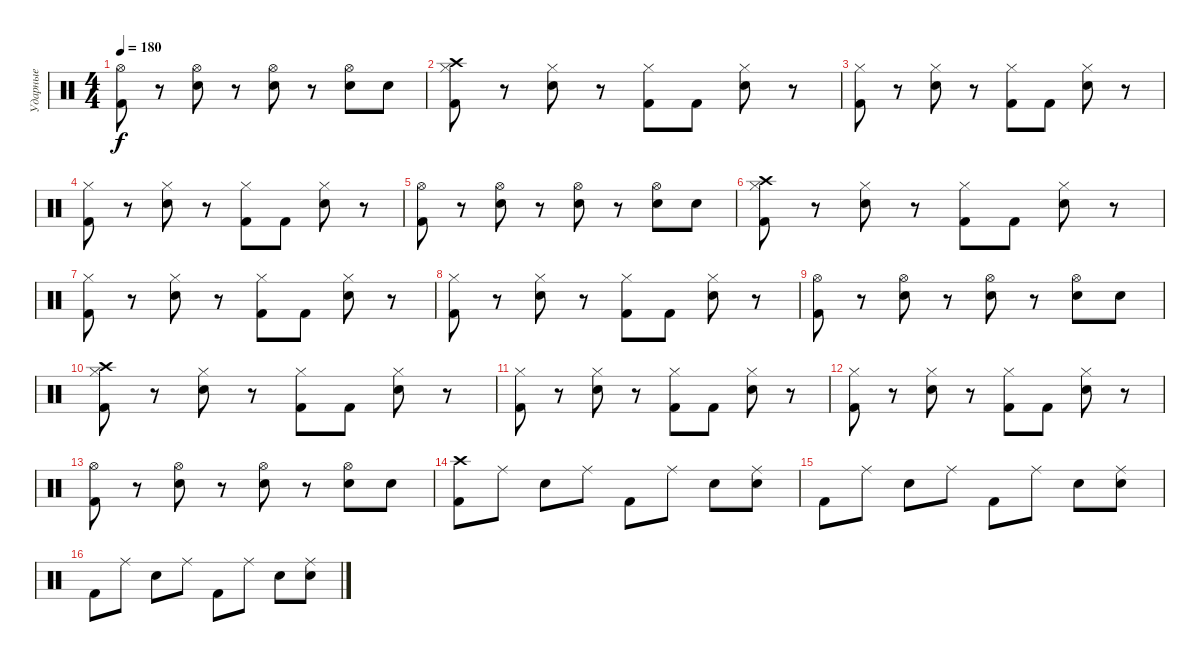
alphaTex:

\track ("Ударные" "Ударные") {instrument percussion}
\staff {score}
\articulation defaults
\ts (4 4)
\tempo 180
\clef neutral
\ks c
("Hi-Hat (open)" "Kick (hit) 2").8{dy f} r.8 ("Hi-Hat (open)" "Snare (hit) 2").8 r.8 ("Hi-Hat (open)" "Snare (hit) 2").8 r.8 ("Hi-Hat (open)" "Snare (hit) 2").8 "Snare (hit) 2".8 |
("Hi-Hat (closed)" "Kick (hit) 2" "Crash high (hit)").8 r.8 ("Hi-Hat (closed)" "Electric Snare (hit)").8 r.8 ("Hi-Hat (closed)" "Kick (hit) 2").8 "Kick (hit) 2".8 ("Hi-Hat (closed)" "Electric Snare (hit)").8 r.8 |
("Hi-Hat (closed)" "Kick (hit) 2").8 r.8 ("Hi-Hat (closed)" "Electric Snare (hit)").8 r.8 ("Hi-Hat (closed)" "Kick (hit) 2").8 "Kick (hit) 2".8 ("Hi-Hat (closed)" "Electric Snare (hit)").8 r.8 |
("Hi-Hat (closed)" "Kick (hit) 2").8 r.8 ("Hi-Hat (closed)" "Electric Snare (hit)").8 r.8 ("Hi-Hat (closed)" "Kick (hit) 2").8 "Kick (hit) 2".8 ("Hi-Hat (closed)" "Electric Snare (hit)").8 r.8 |
("Hi-Hat (open)" "Kick (hit) 2").8 r.8 ("Hi-Hat (open)" "Snare (hit) 2").8 r.8 ("Hi-Hat (open)" "Snare (hit) 2").8 r.8 ("Hi-Hat (open)" "Snare (hit) 2").8 "Snare (hit) 2".8 |
("Hi-Hat (closed)" "Kick (hit) 2" "Crash high (hit)").8 r.8 ("Hi-Hat (closed)" "Electric Snare (hit)").8 r.8 ("Hi-Hat (closed)" "Kick (hit) 2").8 "Kick (hit) 2".8 ("Hi-Hat (closed)" "Electric Snare (hit)").8 r.8 |
("Hi-Hat (closed)" "Kick (hit) 2").8 r.8 ("Hi-Hat (closed)" "Electric Snare (hit)").8 r.8 ("Hi-Hat (closed)" "Kick (hit) 2").8 "Kick (hit) 2".8 ("Hi-Hat (closed)" "Electric Snare (hit)").8 r.8 |
("Hi-Hat (closed)" "Kick (hit) 2").8 r.8 ("Hi-Hat (closed)" "Electric Snare (hit)").8 r.8 ("Hi-Hat (closed)" "Kick (hit) 2").8 "Kick (hit) 2".8 ("Hi-Hat (closed)" "Electric Snare (hit)").8 r.8 |
("Hi-Hat (open)" "Kick (hit) 2").8 r.8 ("Hi-Hat (open)" "Snare (hit) 2").8 r.8 ("Hi-Hat (open)" "Snare (hit) 2").8 r.8 ("Hi-Hat (open)" "Snare (hit) 2").8 "Snare (hit) 2".8 |
("Hi-Hat (closed)" "Kick (hit) 2" "Crash high (hit)").8 r.8 ("Hi-Hat (closed)" "Electric Snare (hit)").8 r.8 ("Hi-Hat (closed)" "Kick (hit) 2").8 "Kick (hit) 2".8 ("Hi-Hat (closed)" "Electric Snare (hit)").8 r.8 |
("Hi-Hat (closed)" "Kick (hit) 2").8 r.8 ("Hi-Hat (closed)" "Electric Snare (hit)").8 r.8 ("Hi-Hat (closed)" "Kick (hit) 2").8 "Kick (hit) 2".8 ("Hi-Hat (closed)" "Electric Snare (hit)").8 r.8 |
("Hi-Hat (closed)" "Kick (hit) 2").8 r.8 ("Hi-Hat (closed)" "Electric Snare (hit)").8 r.8 ("Hi-Hat (closed)" "Kick (hit) 2").8 "Kick (hit) 2".8 ("Hi-Hat (closed)" "Electric Snare (hit)").8 r.8 |
("Hi-Hat (open)" "Kick (hit) 2").8 r.8 ("Hi-Hat (open)" "Snare (hit) 2").8 r.8 ("Hi-Hat (open)" "Snare (hit) 2").8 r.8 ("Hi-Hat (open)" "Snare (hit) 2").8 "Snare (hit) 2".8 |
("Kick (hit) 2" "Crash high (hit)").8 "Ride (middle)".8 "Electric Snare (hit)".8 "Ride (middle)".8 "Kick (hit) 2".8 "Ride (middle)".8 "Electric Snare (hit)".8 ("Ride (middle)" "Electric Snare (hit)").8 |
"Kick (hit) 2".8 "Ride (middle)".8 "Electric Snare (hit)".8 "Ride (middle)".8 "Kick (hit) 2".8 "Ride (middle)".8 "Electric Snare (hit)".8 ("Ride (middle)" "Electric Snare (hit)").8 |
"Kick (hit) 2".8 "Ride (middle)".8 "Electric Snare (hit)".8 "Ride (middle)".8 "Kick (hit) 2".8 "Ride (middle)".8 "Electric Snare (hit)".8 ("Ride (middle)" "Electric Snare (hit)").8
